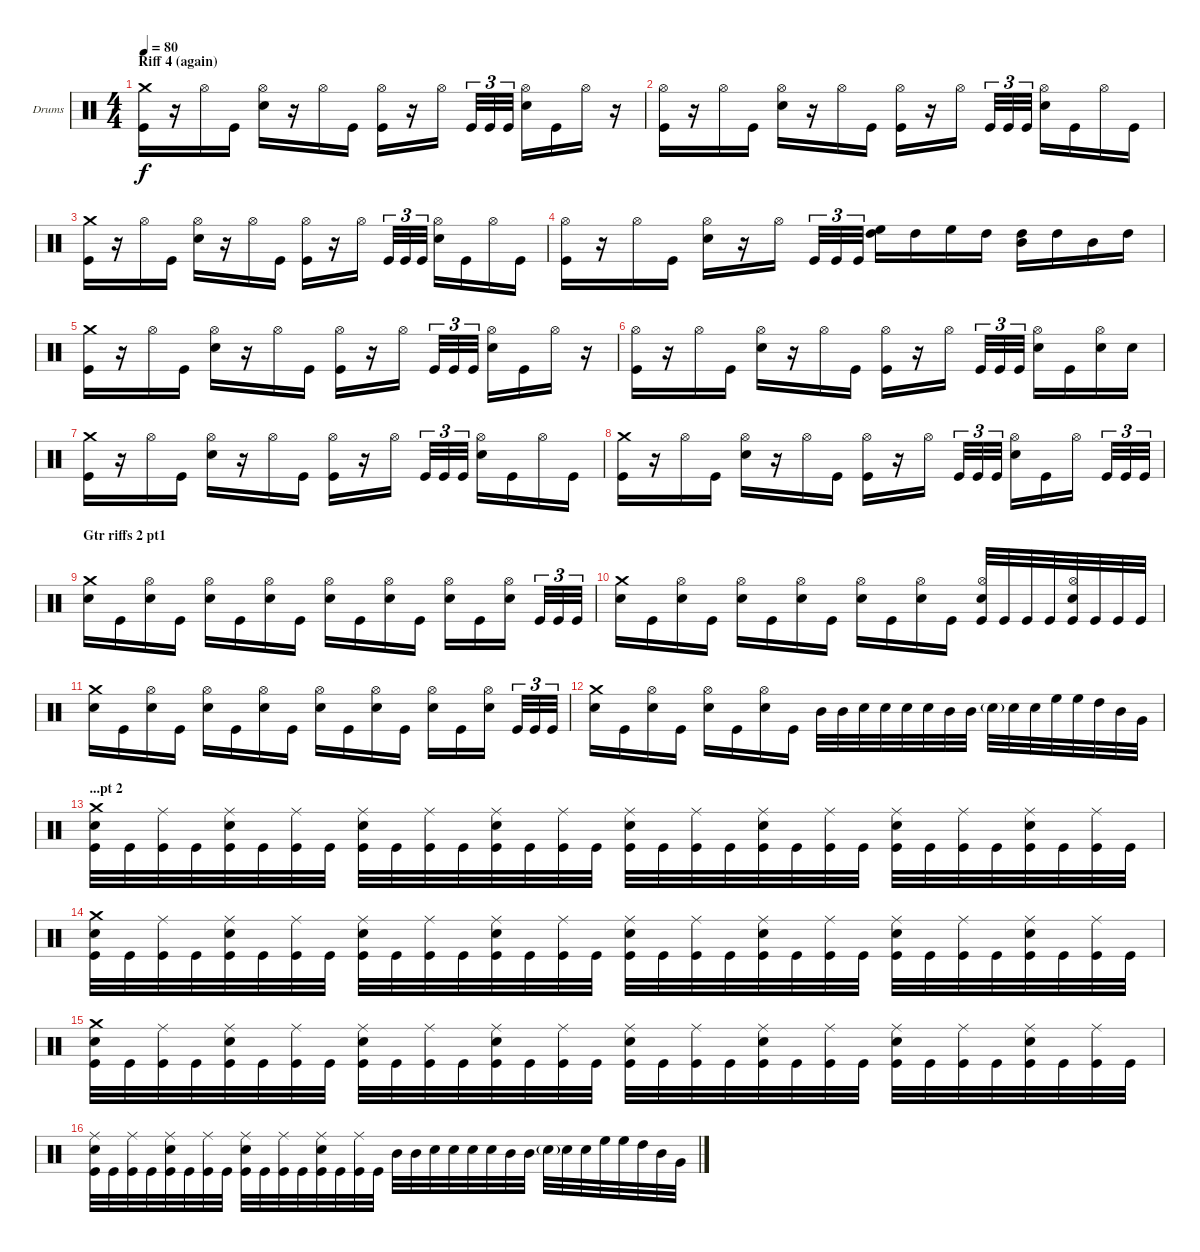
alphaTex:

\bracketExtendMode groupsimilarinstruments
\firstSystemTrackNameOrientation horizontal
\otherSystemsTrackNameOrientation horizontal
\track ("Drumkit" "Drums") {instrument percussion}
\staff {score}
\articulation defaults
\ts (4 4)
\section ("" "Riff 4 (again)")
\tempo 80
\clef neutral
\ks c
("Crash medium (hit)" "Kick (hit)").16{dy f} r.16 "Hi-Hat (open)".16 "Kick (hit)".16 ("Hi-Hat (open)" "Snare (hit) 2").16 r.16 "Hi-Hat (open)".16 "Kick (hit)".16 ("Hi-Hat (open)" "Kick (hit)").16 r.16 "Hi-Hat (open)".16 "Kick (hit)".32{tu (3 2)} "Kick (hit)".32{tu (3 2)} "Kick (hit)".32{tu (3 2)} ("Hi-Hat (open)" "Snare (hit) 2").16 "Kick (hit)".16 "Hi-Hat (open)".16 r.16 |
("Hi-Hat (open)" "Kick (hit)").16 r.16 "Hi-Hat (open)".16 "Kick (hit)".16 ("Hi-Hat (open)" "Snare (hit) 2").16 r.16 "Hi-Hat (open)".16 "Kick (hit)".16 ("Hi-Hat (open)" "Kick (hit)").16 r.16 "Hi-Hat (open)".16 "Kick (hit)".32{tu (3 2)} "Kick (hit)".32{tu (3 2)} "Kick (hit)".32{tu (3 2)} ("Hi-Hat (open)" "Snare (hit) 2").16 "Kick (hit)".16 "Hi-Hat (open)".16 "Kick (hit)".16 |
("Crash medium (hit)" "Kick (hit)").16 r.16 "Hi-Hat (open)".16 "Kick (hit)".16 ("Hi-Hat (open)" "Snare (hit) 2").16 r.16 "Hi-Hat (open)".16 "Kick (hit)".16 ("Hi-Hat (open)" "Kick (hit)").16 r.16 "Hi-Hat (open)".16 "Kick (hit)".32{tu (3 2)} "Kick (hit)".32{tu (3 2)} "Kick (hit)".32{tu (3 2)} ("Hi-Hat (open)" "Snare (hit) 2").16 "Kick (hit)".16 "Hi-Hat (open)".16 "Kick (hit)".16 |
("Hi-Hat (open)" "Kick (hit)").16 r.16 "Hi-Hat (open)".16 "Kick (hit)".16 ("Hi-Hat (open)" "Snare (hit) 2").16 r.16 "Hi-Hat (open)".16 "Kick (hit)".32{tu (3 2)} "Kick (hit)".32{tu (3 2)} "Kick (hit)".32{tu (3 2)} ("High Floor Tom (hit)" "High Tom (hit)").16 "High Tom (hit)".16 "High Floor Tom (hit)".16 "High Tom (hit)".16 ("High Tom (hit)" "Mid Tom (hit)").16 "High Tom (hit)".16 "Mid Tom (hit)".16 "High Tom (hit)".16 |
("Crash medium (hit)" "Kick (hit)").16 r.16 "Hi-Hat (open)".16 "Kick (hit)".16 ("Hi-Hat (open)" "Snare (hit) 2").16 r.16 "Hi-Hat (open)".16 "Kick (hit)".16 ("Hi-Hat (open)" "Kick (hit)").16 r.16 "Hi-Hat (open)".16 "Kick (hit)".32{tu (3 2)} "Kick (hit)".32{tu (3 2)} "Kick (hit)".32{tu (3 2)} ("Hi-Hat (open)" "Snare (hit) 2").16 "Kick (hit)".16 "Hi-Hat (open)".16 r.16 |
("Hi-Hat (open)" "Kick (hit)").16 r.16 "Hi-Hat (open)".16 "Kick (hit)".16 ("Hi-Hat (open)" "Snare (hit) 2").16 r.16 "Hi-Hat (open)".16 "Kick (hit)".16 ("Hi-Hat (open)" "Kick (hit)").16 r.16 "Hi-Hat (open)".16 "Kick (hit)".32{tu (3 2)} "Kick (hit)".32{tu (3 2)} "Kick (hit)".32{tu (3 2)} ("Hi-Hat (open)" "Snare (hit) 2").16 "Kick (hit)".16 ("Hi-Hat (open)" "Snare (hit) 2").16 "Snare (hit) 2".16 |
("Crash medium (hit)" "Kick (hit)").16 r.16 "Hi-Hat (open)".16 "Kick (hit)".16 ("Hi-Hat (open)" "Snare (hit) 2").16 r.16 "Hi-Hat (open)".16 "Kick (hit)".16 ("Hi-Hat (open)" "Kick (hit)").16 r.16 "Hi-Hat (open)".16 "Kick (hit)".32{tu (3 2)} "Kick (hit)".32{tu (3 2)} "Kick (hit)".32{tu (3 2)} ("Hi-Hat (open)" "Snare (hit) 2").16 "Kick (hit)".16 "Hi-Hat (open)".16 "Kick (hit)".16 |
("Crash medium (hit)" "Kick (hit)").16 r.16 "Hi-Hat (open)".16 "Kick (hit)".16 ("Hi-Hat (open)" "Snare (hit) 2").16 r.16 "Hi-Hat (open)".16 "Kick (hit)".16 ("Hi-Hat (open)" "Kick (hit)").16 r.16 "Hi-Hat (open)".16 "Kick (hit)".32{tu (3 2)} "Kick (hit)".32{tu (3 2)} "Kick (hit)".32{tu (3 2)} ("Hi-Hat (open)" "Snare (hit) 2").16 "Kick (hit)".16 "Hi-Hat (open)".16 "Kick (hit)".32{tu (3 2)} "Kick (hit)".32{tu (3 2)} "Kick (hit)".32{tu (3 2)} |
\section ("" "Gtr riffs 2 pt1")
("Crash medium (hit)" "Snare (hit) 2").16 "Kick (hit)".16 ("Hi-Hat (open)" "Snare (hit) 2").16 "Kick (hit)".16 ("Hi-Hat (open)" "Snare (hit) 2").16 "Kick (hit)".16 ("Hi-Hat (open)" "Snare (hit) 2").16 "Kick (hit)".16 ("Hi-Hat (open)" "Snare (hit) 2").16 "Kick (hit)".16 ("Hi-Hat (open)" "Snare (hit) 2").16 "Kick (hit)".16 ("Hi-Hat (open)" "Snare (hit) 2").16 "Kick (hit)".16 ("Hi-Hat (open)" "Snare (hit) 2").16 "Kick (hit)".32{tu (3 2)} "Kick (hit)".32{tu (3 2)} "Kick (hit)".32{tu (3 2)} |
("Crash medium (hit)" "Snare (hit) 2").16 "Kick (hit)".16 ("Hi-Hat (open)" "Snare (hit) 2").16 "Kick (hit)".16 ("Hi-Hat (open)" "Snare (hit) 2").16 "Kick (hit)".16 ("Hi-Hat (open)" "Snare (hit) 2").16 "Kick (hit)".16 ("Hi-Hat (open)" "Snare (hit) 2").16 "Kick (hit)".16 ("Hi-Hat (open)" "Snare (hit) 2").16 "Kick (hit)".16 ("Hi-Hat (open)" "Snare (hit) 2" "Kick (hit)").32 "Kick (hit)".32 "Kick (hit)".32 "Kick (hit)".32 ("Hi-Hat (open)" "Snare (hit) 2" "Kick (hit)").32 "Kick (hit)".32 "Kick (hit)".32 "Kick (hit)".32 |
("Crash medium (hit)" "Snare (hit) 2").16 "Kick (hit)".16 ("Hi-Hat (open)" "Snare (hit) 2").16 "Kick (hit)".16 ("Hi-Hat (open)" "Snare (hit) 2").16 "Kick (hit)".16 ("Hi-Hat (open)" "Snare (hit) 2").16 "Kick (hit)".16 ("Hi-Hat (open)" "Snare (hit) 2").16 "Kick (hit)".16 ("Hi-Hat (open)" "Snare (hit) 2").16 "Kick (hit)".16 ("Hi-Hat (open)" "Snare (hit) 2").16 "Kick (hit)".16 ("Hi-Hat (open)" "Snare (hit) 2").16 "Kick (hit)".32{tu (3 2)} "Kick (hit)".32{tu (3 2)} "Kick (hit)".32{tu (3 2)} |
("Crash medium (hit)" "Snare (hit) 2").16 "Kick (hit)".16 ("Hi-Hat (open)" "Snare (hit) 2").16 "Kick (hit)".16 ("Hi-Hat (open)" "Snare (hit) 2").16 "Kick (hit)".16 ("Hi-Hat (open)" "Snare (hit) 2").16 "Kick (hit)".16 "Mid Tom (hit)".32 "Mid Tom (hit)".32 "Snare (hit) 2".32 "Snare (hit) 2".32 "Snare (hit) 2".32 "Snare (hit) 2".32 "Mid Tom (hit)".32 "Mid Tom (hit)".32 "Snare (hit) 2"{g}.32 "Snare (hit) 2".32 "Snare (hit) 2".32 "High Floor Tom (hit)".32 "High Floor Tom (hit)".32 "High Tom (hit)".32 "Mid Tom (hit)".32 "Very Low Tom (hit)".32 |
\section ("" "...pt 2")
("Crash medium (hit)" "Snare (hit) 2" "Kick (hit)").32 "Kick (hit)".32 ("Ride (middle)" "Kick (hit)").32 "Kick (hit)".32 ("Ride (middle)" "Snare (hit) 2" "Kick (hit)").32 "Kick (hit)".32 ("Ride (middle)" "Kick (hit)").32 "Kick (hit)".32 ("Ride (middle)" "Snare (hit) 2" "Kick (hit)").32 "Kick (hit)".32 ("Ride (middle)" "Kick (hit)").32 "Kick (hit)".32 ("Ride (middle)" "Snare (hit) 2" "Kick (hit)").32 "Kick (hit)".32 ("Ride (middle)" "Kick (hit)").32 "Kick (hit)".32 ("Ride (middle)" "Snare (hit) 2" "Kick (hit)").32 "Kick (hit)".32 ("Ride (middle)" "Kick (hit)").32 "Kick (hit)".32 ("Ride (middle)" "Snare (hit) 2" "Kick (hit)").32 "Kick (hit)".32 ("Ride (middle)" "Kick (hit)").32 "Kick (hit)".32 ("Ride (middle)" "Snare (hit) 2" "Kick (hit)").32 "Kick (hit)".32 ("Ride (middle)" "Kick (hit)").32 "Kick (hit)".32 ("Ride (middle)" "Snare (hit) 2" "Kick (hit)").32 "Kick (hit)".32 ("Ride (middle)" "Kick (hit)").32 "Kick (hit)".32 |
("Crash medium (hit)" "Snare (hit) 2" "Kick (hit)").32 "Kick (hit)".32 ("Ride (middle)" "Kick (hit)").32 "Kick (hit)".32 ("Ride (middle)" "Snare (hit) 2" "Kick (hit)").32 "Kick (hit)".32 ("Ride (middle)" "Kick (hit)").32 "Kick (hit)".32 ("Ride (middle)" "Snare (hit) 2" "Kick (hit)").32 "Kick (hit)".32 ("Ride (middle)" "Kick (hit)").32 "Kick (hit)".32 ("Ride (middle)" "Snare (hit) 2" "Kick (hit)").32 "Kick (hit)".32 ("Ride (middle)" "Kick (hit)").32 "Kick (hit)".32 ("Ride (middle)" "Snare (hit) 2" "Kick (hit)").32 "Kick (hit)".32 ("Ride (middle)" "Kick (hit)").32 "Kick (hit)".32 ("Ride (middle)" "Snare (hit) 2" "Kick (hit)").32 "Kick (hit)".32 ("Ride (middle)" "Kick (hit)").32 "Kick (hit)".32 ("Ride (middle)" "Snare (hit) 2" "Kick (hit)").32 "Kick (hit)".32 ("Ride (middle)" "Kick (hit)").32 "Kick (hit)".32 ("Ride (middle)" "Snare (hit) 2" "Kick (hit)").32 "Kick (hit)".32 ("Ride (middle)" "Kick (hit)").32 "Kick (hit)".32 |
("Crash medium (hit)" "Snare (hit) 2" "Kick (hit)").32 "Kick (hit)".32 ("Ride (middle)" "Kick (hit)").32 "Kick (hit)".32 ("Ride (middle)" "Snare (hit) 2" "Kick (hit)").32 "Kick (hit)".32 ("Ride (middle)" "Kick (hit)").32 "Kick (hit)".32 ("Ride (middle)" "Snare (hit) 2" "Kick (hit)").32 "Kick (hit)".32 ("Ride (middle)" "Kick (hit)").32 "Kick (hit)".32 ("Ride (middle)" "Snare (hit) 2" "Kick (hit)").32 "Kick (hit)".32 ("Ride (middle)" "Kick (hit)").32 "Kick (hit)".32 ("Ride (middle)" "Snare (hit) 2" "Kick (hit)").32 "Kick (hit)".32 ("Ride (middle)" "Kick (hit)").32 "Kick (hit)".32 ("Ride (middle)" "Snare (hit) 2" "Kick (hit)").32 "Kick (hit)".32 ("Ride (middle)" "Kick (hit)").32 "Kick (hit)".32 ("Ride (middle)" "Snare (hit) 2" "Kick (hit)").32 "Kick (hit)".32 ("Ride (middle)" "Kick (hit)").32 "Kick (hit)".32 ("Ride (middle)" "Snare (hit) 2" "Kick (hit)").32 "Kick (hit)".32 ("Ride (middle)" "Kick (hit)").32 "Kick (hit)".32 |
("Ride (middle)" "Snare (hit) 2" "Kick (hit)").32 "Kick (hit)".32 ("Ride (middle)" "Kick (hit)").32 "Kick (hit)".32 ("Ride (middle)" "Snare (hit) 2" "Kick (hit)").32 "Kick (hit)".32 ("Ride (middle)" "Kick (hit)").32 "Kick (hit)".32 ("Ride (middle)" "Snare (hit) 2" "Kick (hit)").32 "Kick (hit)".32 ("Ride (middle)" "Kick (hit)").32 "Kick (hit)".32 ("Ride (middle)" "Snare (hit) 2" "Kick (hit)").32 "Kick (hit)".32 ("Ride (middle)" "Kick (hit)").32 "Kick (hit)".32 "Mid Tom (hit)".32 "Mid Tom (hit)".32 "Snare (hit) 2".32 "Snare (hit) 2".32 "Snare (hit) 2".32 "Snare (hit) 2".32 "Mid Tom (hit)".32 "Mid Tom (hit)".32 "Snare (hit) 2"{g}.32 "Snare (hit) 2".32 "Snare (hit) 2".32 "High Floor Tom (hit)".32 "High Floor Tom (hit)".32 "High Tom (hit)".32 "Mid Tom (hit)".32 "Very Low Tom (hit)".32
